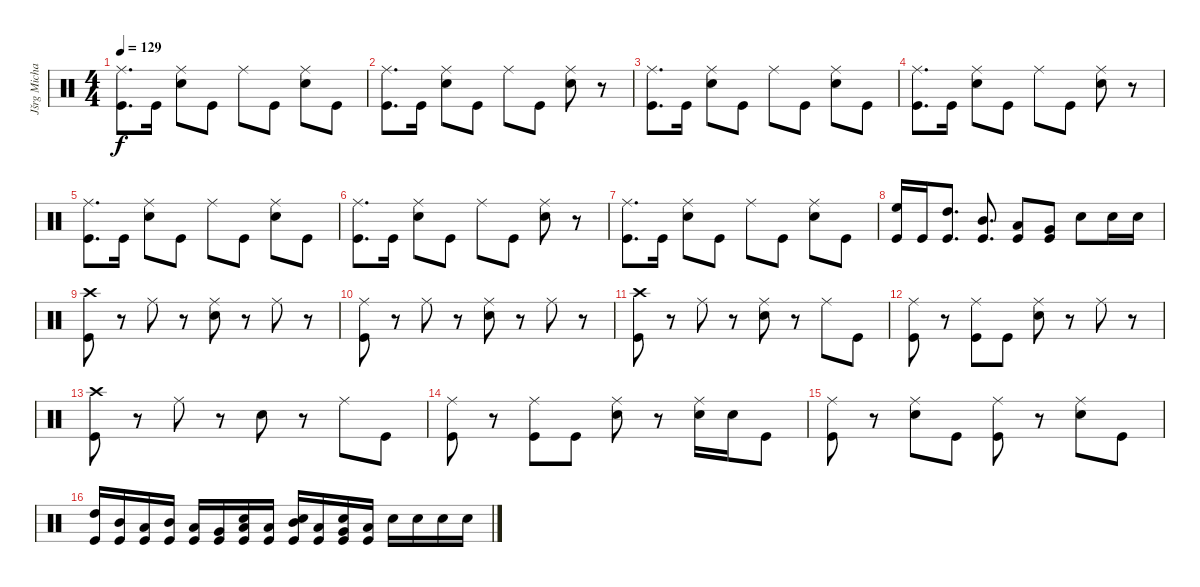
\track ("Jšrg Michael" "Jšrg Micha") {instrument percussion bank 177}
\staff {score}
\articulation defaults
\ts (4 4)
\tempo 129
\clef neutral
\ks c
("Kick (hit)" "Ride (middle)").8{d dy f} "Kick (hit)".16 ("Snare (hit) 2" "Ride (middle)").8 "Kick (hit)".8 "Ride (middle)".8 "Kick (hit)".8 ("Snare (hit) 2" "Ride (middle)").8 "Kick (hit)".8 |
("Kick (hit)" "Ride (middle)").8{d} "Kick (hit)".16 ("Snare (hit) 2" "Ride (middle)").8 "Kick (hit)".8 "Ride (middle)".8 "Kick (hit)".8 ("Snare (hit) 2" "Ride (middle)").8 r.8 |
("Kick (hit)" "Ride (middle)").8{d} "Kick (hit)".16 ("Snare (hit) 2" "Ride (middle)").8 "Kick (hit)".8 "Ride (middle)".8 "Kick (hit)".8 ("Snare (hit) 2" "Ride (middle)").8 "Kick (hit)".8 |
("Kick (hit)" "Ride (middle)").8{d} "Kick (hit)".16 ("Snare (hit) 2" "Ride (middle)").8 "Kick (hit)".8 "Ride (middle)".8 "Kick (hit)".8 ("Snare (hit) 2" "Ride (middle)").8 r.8 |
("Kick (hit)" "Ride (middle)").8{d} "Kick (hit)".16 ("Snare (hit) 2" "Ride (middle)").8 "Kick (hit)".8 "Ride (middle)".8 "Kick (hit)".8 ("Snare (hit) 2" "Ride (middle)").8 "Kick (hit)".8 |
("Kick (hit)" "Ride (middle)").8{d} "Kick (hit)".16 ("Snare (hit) 2" "Ride (middle)").8 "Kick (hit)".8 "Ride (middle)".8 "Kick (hit)".8 ("Snare (hit) 2" "Ride (middle)").8 r.8 |
("Kick (hit)" "Ride (middle)").8{d} "Kick (hit)".16 ("Snare (hit) 2" "Ride (middle)").8 "Kick (hit)".8 "Ride (middle)".8 "Kick (hit)".8 ("Snare (hit) 2" "Ride (middle)").8 "Kick (hit)".8 |
("Kick (hit)" "High Floor Tom (hit)").16 "Kick (hit)".16 ("Kick (hit)" "High Tom (hit)").8{d} ("Kick (hit)" "Mid Tom (hit)").8{d} ("Kick (hit)" "Low Tom (hit)").8 ("Kick (hit)" "Very Low Tom (hit)").8 "Snare (hit) 2".8 "Snare (hit) 2".16 "Snare (hit) 2".16 |
("Kick (hit)" "Crash high (hit)").8 r.8 "Ride (middle)".8 r.8 ("Snare (hit) 2" "Ride (middle)").8 r.8 "Ride (middle)".8 r.8 |
("Kick (hit)" "Ride (middle)").8 r.8 "Ride (middle)".8 r.8 ("Snare (hit) 2" "Ride (middle)").8 r.8 "Ride (middle)".8 r.8 |
("Kick (hit)" "Crash high (hit)").8 r.8 "Ride (middle)".8 r.8 ("Snare (hit) 2" "Ride (middle)").8 r.8 "Ride (middle)".8 "Kick (hit)".8 |
("Kick (hit)" "Ride (middle)").8 r.8 ("Kick (hit)" "Ride (middle)").8 "Kick (hit)".8 ("Snare (hit) 2" "Ride (middle)").8 r.8 "Ride (middle)".8 r.8 |
("Kick (hit)" "Crash high (hit)").8 r.8 "Ride (middle)".8 r.8 "Snare (hit) 2".8 r.8 "Ride (middle)".8 "Kick (hit)".8 |
("Kick (hit)" "Ride (middle)").8 r.8 ("Kick (hit)" "Ride (middle)").8 "Kick (hit)".8 ("Snare (hit) 2" "Ride (middle)").8 r.8 ("Snare (hit) 2" "Ride (middle)").16 "Snare (hit) 2".16 "Kick (hit)".8 |
("Kick (hit)" "Ride (middle)").8 r.8 ("Snare (hit) 2" "Ride (middle)").8 "Kick (hit)".8 ("Kick (hit)" "Ride (middle)").8 r.8 ("Snare (hit) 2" "Ride (middle)").8 "Kick (hit)".8 |
("Kick (hit)" "High Tom (hit)").16 ("Kick (hit)" "Mid Tom (hit)").16 ("Kick (hit)" "Low Tom (hit)").16 ("Kick (hit)" "Mid Tom (hit)").16 ("Kick (hit)" "Low Tom (hit)").16 ("Kick (hit)" "Very Low Tom (hit)").16 ("Kick (hit)" "Snare (hit) 2" "Low Floor Tom (hit)").16 ("Kick (hit)" "Low Tom (hit)").16 ("Kick (hit)" "Snare (hit) 2" "Mid Tom (hit)").16 ("Kick (hit)" "Low Tom (hit)").16 ("Kick (hit)" "Snare (hit) 2" "Very Low Tom (hit)").16 ("Kick (hit)" "Low Floor Tom (hit)").16 "Snare (hit) 2".16 "Snare (hit) 2".16 "Snare (hit) 2".16 "Snare (hit) 2".16
